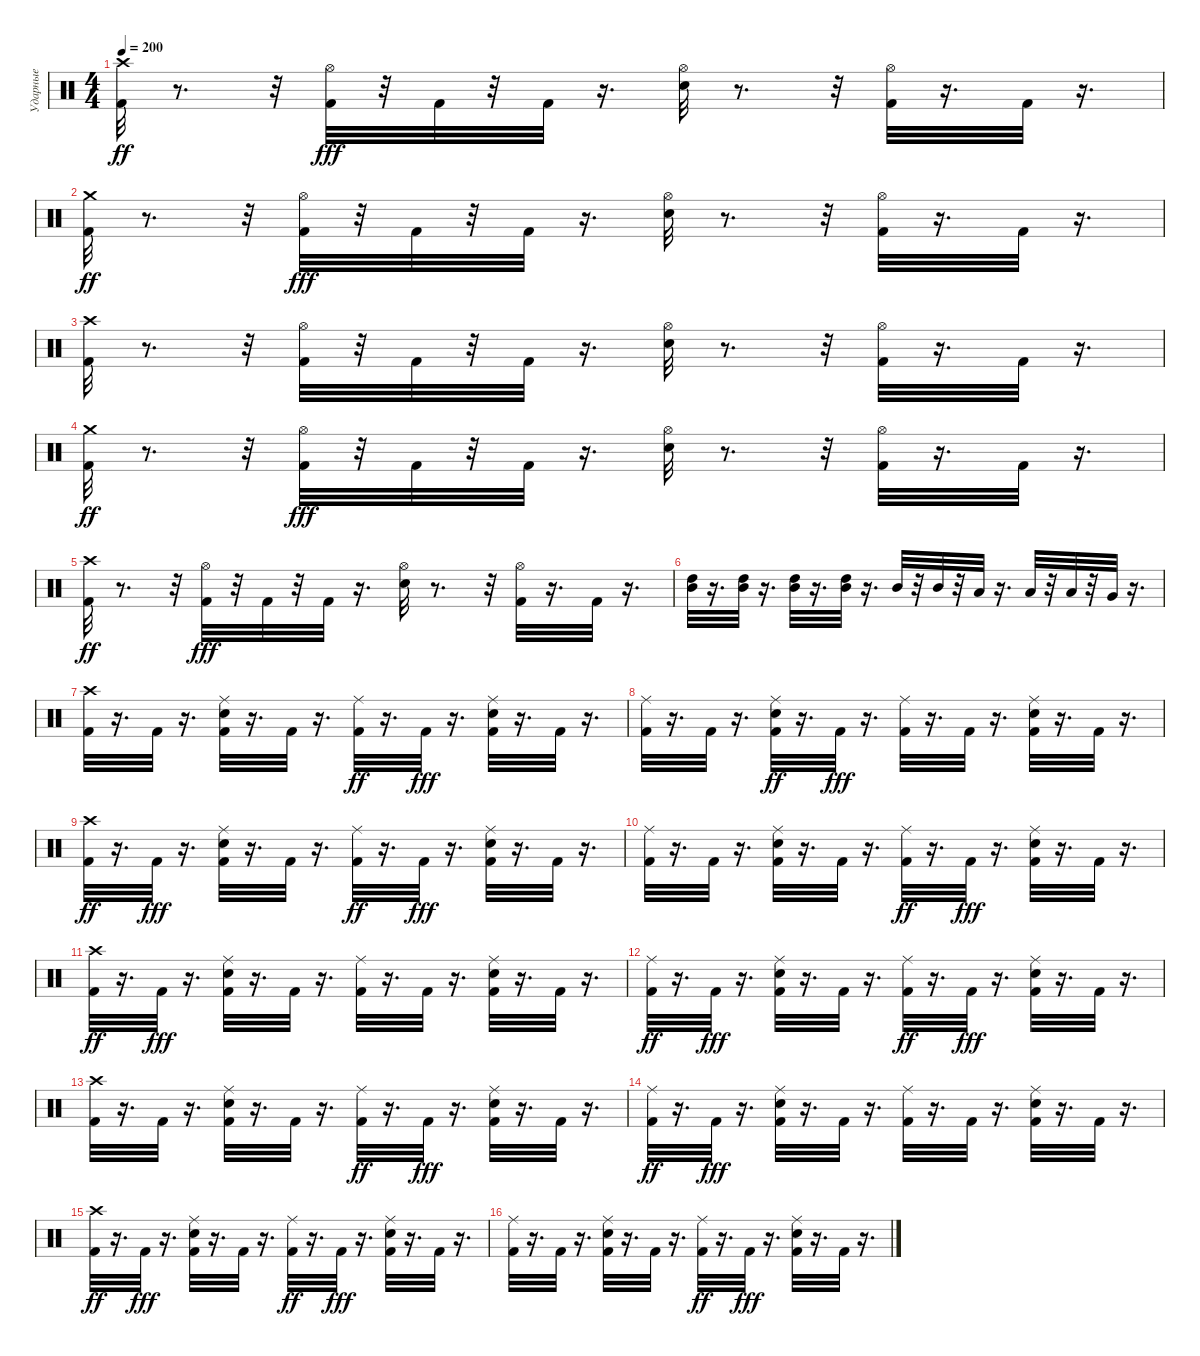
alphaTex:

\track ("Ударные" "Ударные") {instrument percussion}
\staff {score}
\articulation defaults
\ts (4 4)
\tempo 200
\clef neutral
\ks c
("Kick (hit) 2" "Crash high (hit)").32{dy ff} r.8{d} r.32 ("Kick (hit) 2" "Hi-Hat (open)").32{dy fff} r.32 "Kick (hit) 2".32 r.32 "Kick (hit) 2".32 r.16{d} ("Snare (hit) 2" "Hi-Hat (open)").32 r.8{d} r.32 ("Kick (hit) 2" "Hi-Hat (open)").32 r.16{d} "Kick (hit) 2".32 r.16{d} |
("Kick (hit) 2" "Crash medium (hit)").32{dy ff} r.8{d} r.32 ("Kick (hit) 2" "Hi-Hat (open)").32{dy fff} r.32 "Kick (hit) 2".32 r.32 "Kick (hit) 2".32 r.16{d} ("Snare (hit) 2" "Hi-Hat (open)").32 r.8{d} r.32 ("Kick (hit) 2" "Hi-Hat (open)").32 r.16{d} "Kick (hit) 2".32 r.16{d} |
("Crash high (hit)" "Kick (hit) 2").32 r.8{d} r.32 ("Kick (hit) 2" "Hi-Hat (open)").32 r.32 "Kick (hit) 2".32 r.32 "Kick (hit) 2".32 r.16{d} ("Snare (hit) 2" "Hi-Hat (open)").32 r.8{d} r.32 ("Hi-Hat (open)" "Kick (hit) 2").32 r.16{d} "Kick (hit) 2".32 r.16{d} |
("Kick (hit) 2" "Crash medium (hit)").32{dy ff} r.8{d} r.32 ("Hi-Hat (open)" "Kick (hit) 2").32{dy fff} r.32 "Kick (hit) 2".32 r.32 "Kick (hit) 2".32 r.16{d} ("Hi-Hat (open)" "Snare (hit) 2").32 r.8{d} r.32 ("Kick (hit) 2" "Hi-Hat (open)").32 r.16{d} "Kick (hit) 2".32 r.16{d} |
("Kick (hit) 2" "Crash high (hit)").32{dy ff} r.8{d} r.32 ("Kick (hit) 2" "Hi-Hat (open)").32{dy fff} r.32 "Kick (hit) 2".32 r.32 "Kick (hit) 2".32 r.16{d} ("Snare (hit) 2" "Hi-Hat (open)").32 r.8{d} r.32 ("Kick (hit) 2" "Hi-Hat (open)").32 r.16{d} "Kick (hit) 2".32 r.16{d} |
("Mid Tom (hit)" "High Tom (hit)").32 r.16{d} ("Mid Tom (hit)" "High Tom (hit)").32 r.16{d} ("Mid Tom (hit)" "High Tom (hit)").32 r.16{d} ("Mid Tom (hit)" "High Tom (hit)").32 r.16{d} "Mid Tom (hit)".32 r.32 "Mid Tom (hit)".32 r.32 "Low Tom (hit)".32 r.16{d} "Low Tom (hit)".32 r.32 "Low Tom (hit)".32 r.32 "Very Low Tom (hit)".32 r.16{d} |
("Crash high (hit)" "Kick (hit) 2").32 r.16{d} "Kick (hit) 2".32 r.16{d} ("Kick (hit) 2" "Ride (middle)" "Snare (hit) 2").32 r.16{d} "Kick (hit) 2".32 r.16{d} ("Kick (hit) 2" "Ride (middle)").32{dy ff} r.16{d} "Kick (hit) 2".32{dy fff} r.16{d} ("Snare (hit) 2" "Ride (middle)" "Kick (hit) 2").32 r.16{d} "Kick (hit) 2".32 r.16{d} |
("Ride (middle)" "Kick (hit) 2").32 r.16{d} "Kick (hit) 2".32 r.16{d} ("Snare (hit) 2" "Kick (hit) 2" "Ride (middle)").32{dy ff} r.16{d} "Kick (hit) 2".32{dy fff} r.16{d} ("Ride (middle)" "Kick (hit) 2").32 r.16{d} "Kick (hit) 2".32 r.16{d} ("Snare (hit) 2" "Ride (middle)" "Kick (hit) 2").32 r.16{d} "Kick (hit) 2".32 r.16{d} |
("Kick (hit) 2" "Crash high (hit)").32{dy ff} r.16{d} "Kick (hit) 2".32{dy fff} r.16{d} ("Ride (middle)" "Kick (hit) 2" "Snare (hit) 2").32 r.16{d} "Kick (hit) 2".32 r.16{d} ("Kick (hit) 2" "Ride (middle)").32{dy ff} r.16{d} "Kick (hit) 2".32{dy fff} r.16{d} ("Kick (hit) 2" "Ride (middle)" "Snare (hit) 2").32 r.16{d} "Kick (hit) 2".32 r.16{d} |
("Ride (middle)" "Kick (hit) 2").32 r.16{d} "Kick (hit) 2".32 r.16{d} ("Ride (middle)" "Snare (hit) 2" "Kick (hit) 2").32 r.16{d} "Kick (hit) 2".32 r.16{d} ("Kick (hit) 2" "Ride (middle)").32{dy ff} r.16{d} "Kick (hit) 2".32{dy fff} r.16{d} ("Ride (middle)" "Snare (hit) 2" "Kick (hit) 2").32 r.16{d} "Kick (hit) 2".32 r.16{d} |
("Kick (hit) 2" "Crash high (hit)").32{dy ff} r.16{d} "Kick (hit) 2".32{dy fff} r.16{d} ("Ride (middle)" "Snare (hit) 2" "Kick (hit) 2").32 r.16{d} "Kick (hit) 2".32 r.16{d} ("Ride (middle)" "Kick (hit) 2").32 r.16{d} "Kick (hit) 2".32 r.16{d} ("Ride (middle)" "Snare (hit) 2" "Kick (hit) 2").32 r.16{d} "Kick (hit) 2".32 r.16{d} |
("Kick (hit) 2" "Ride (middle)").32{dy ff} r.16{d} "Kick (hit) 2".32{dy fff} r.16{d} ("Snare (hit) 2" "Ride (middle)" "Kick (hit) 2").32 r.16{d} "Kick (hit) 2".32 r.16{d} ("Kick (hit) 2" "Ride (middle)").32{dy ff} r.16{d} "Kick (hit) 2".32{dy fff} r.16{d} ("Ride (middle)" "Kick (hit) 2" "Snare (hit) 2").32 r.16{d} "Kick (hit) 2".32 r.16{d} |
("Crash high (hit)" "Kick (hit) 2").32 r.16{d} "Kick (hit) 2".32 r.16{d} ("Kick (hit) 2" "Ride (middle)" "Snare (hit) 2").32 r.16{d} "Kick (hit) 2".32 r.16{d} ("Kick (hit) 2" "Ride (middle)").32{dy ff} r.16{d} "Kick (hit) 2".32{dy fff} r.16{d} ("Ride (middle)" "Kick (hit) 2" "Snare (hit) 2").32 r.16{d} "Kick (hit) 2".32 r.16{d} |
("Kick (hit) 2" "Ride (middle)").32{dy ff} r.16{d} "Kick (hit) 2".32{dy fff} r.16{d} ("Ride (middle)" "Kick (hit) 2" "Snare (hit) 2").32 r.16{d} "Kick (hit) 2".32 r.16{d} ("Ride (middle)" "Kick (hit) 2").32 r.16{d} "Kick (hit) 2".32 r.16{d} ("Snare (hit) 2" "Ride (middle)" "Kick (hit) 2").32 r.16{d} "Kick (hit) 2".32 r.16{d} |
("Kick (hit) 2" "Crash high (hit)").32{dy ff} r.16{d} "Kick (hit) 2".32{dy fff} r.16{d} ("Ride (middle)" "Kick (hit) 2" "Snare (hit) 2").32 r.16{d} "Kick (hit) 2".32 r.16{d} ("Kick (hit) 2" "Ride (middle)").32{dy ff} r.16{d} "Kick (hit) 2".32{dy fff} r.16{d} ("Ride (middle)" "Snare (hit) 2" "Kick (hit) 2").32 r.16{d} "Kick (hit) 2".32 r.16{d} |
("Ride (middle)" "Kick (hit) 2").32 r.16{d} "Kick (hit) 2".32 r.16{d} ("Snare (hit) 2" "Ride (middle)" "Kick (hit) 2").32 r.16{d} "Kick (hit) 2".32 r.16{d} ("Kick (hit) 2" "Ride (middle)").32{dy ff} r.16{d} "Kick (hit) 2".32{dy fff} r.16{d} ("Ride (middle)" "Snare (hit) 2" "Kick (hit) 2").32 r.16{d} "Kick (hit) 2".32 r.16{d}
